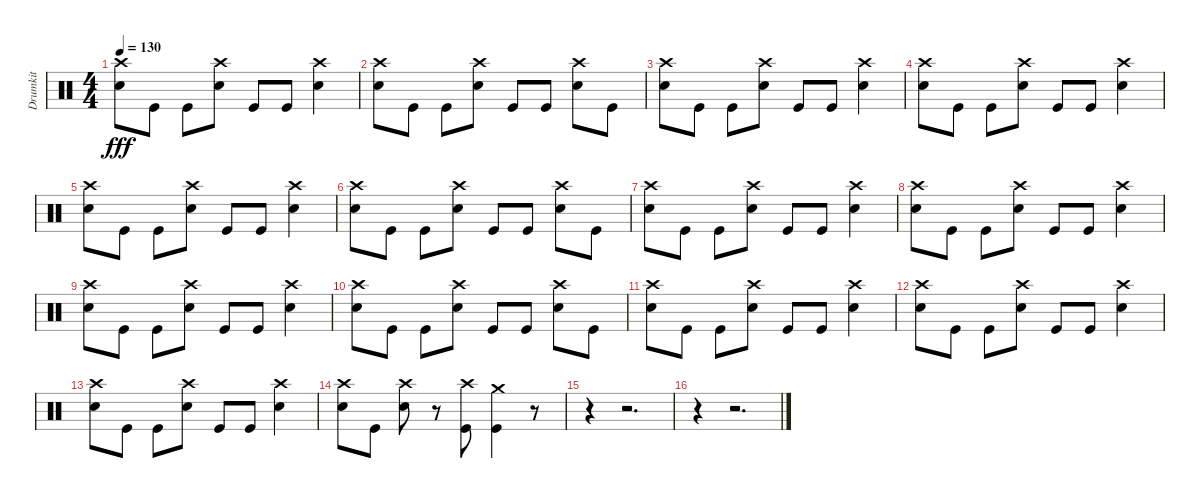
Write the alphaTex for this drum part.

\track ("Drumkit" "Drumkit") {instrument percussion}
\staff {score}
\articulation defaults
\ts (4 4)
\tempo 130
\clef neutral
\ks c
("Snare (hit) 2" "Crash high (hit)").8{dy fff} "Kick (hit)".8 "Kick (hit)".8 ("Snare (hit) 2" "Crash high (hit)").8 "Kick (hit)".8 "Kick (hit)".8 ("Snare (hit) 2" "Crash high (hit)").4 |
("Snare (hit) 2" "Crash high (hit)").8 "Kick (hit)".8 "Kick (hit)".8 ("Snare (hit) 2" "Crash high (hit)").8 "Kick (hit)".8 "Kick (hit)".8 ("Snare (hit) 2" "Crash high (hit)").8 "Kick (hit)".8 |
("Snare (hit) 2" "Crash high (hit)").8 "Kick (hit)".8 "Kick (hit)".8 ("Snare (hit) 2" "Crash high (hit)").8 "Kick (hit)".8 "Kick (hit)".8 ("Snare (hit) 2" "Crash high (hit)").4 |
("Snare (hit) 2" "Crash high (hit)").8 "Kick (hit)".8 "Kick (hit)".8 ("Snare (hit) 2" "Crash high (hit)").8 "Kick (hit)".8 "Kick (hit)".8 ("Snare (hit) 2" "Crash high (hit)").4 |
("Snare (hit) 2" "Crash high (hit)").8 "Kick (hit)".8 "Kick (hit)".8 ("Snare (hit) 2" "Crash high (hit)").8 "Kick (hit)".8 "Kick (hit)".8 ("Snare (hit) 2" "Crash high (hit)").4 |
("Snare (hit) 2" "Crash high (hit)").8 "Kick (hit)".8 "Kick (hit)".8 ("Snare (hit) 2" "Crash high (hit)").8 "Kick (hit)".8 "Kick (hit)".8 ("Snare (hit) 2" "Crash high (hit)").8 "Kick (hit)".8 |
("Snare (hit) 2" "Crash high (hit)").8 "Kick (hit)".8 "Kick (hit)".8 ("Snare (hit) 2" "Crash high (hit)").8 "Kick (hit)".8 "Kick (hit)".8 ("Snare (hit) 2" "Crash high (hit)").4 |
("Snare (hit) 2" "Crash high (hit)").8 "Kick (hit)".8 "Kick (hit)".8 ("Snare (hit) 2" "Crash high (hit)").8 "Kick (hit)".8 "Kick (hit)".8 ("Snare (hit) 2" "Crash high (hit)").4 |
("Snare (hit) 2" "Crash high (hit)").8 "Kick (hit)".8 "Kick (hit)".8 ("Snare (hit) 2" "Crash high (hit)").8 "Kick (hit)".8 "Kick (hit)".8 ("Snare (hit) 2" "Crash high (hit)").4 |
("Snare (hit) 2" "Crash high (hit)").8 "Kick (hit)".8 "Kick (hit)".8 ("Snare (hit) 2" "Crash high (hit)").8 "Kick (hit)".8 "Kick (hit)".8 ("Snare (hit) 2" "Crash high (hit)").8 "Kick (hit)".8 |
("Snare (hit) 2" "Crash high (hit)").8 "Kick (hit)".8 "Kick (hit)".8 ("Snare (hit) 2" "Crash high (hit)").8 "Kick (hit)".8 "Kick (hit)".8 ("Snare (hit) 2" "Crash high (hit)").4 |
("Snare (hit) 2" "Crash high (hit)").8 "Kick (hit)".8 "Kick (hit)".8 ("Snare (hit) 2" "Crash high (hit)").8 "Kick (hit)".8 "Kick (hit)".8 ("Snare (hit) 2" "Crash high (hit)").4 |
("Snare (hit) 2" "Crash high (hit)").8 "Kick (hit)".8 "Kick (hit)".8 ("Snare (hit) 2" "Crash high (hit)").8 "Kick (hit)".8 "Kick (hit)".8 ("Snare (hit) 2" "Crash high (hit)").4 |
("Snare (hit) 2" "Crash high (hit)").8 "Kick (hit)".8 ("Crash high (hit)" "Snare (hit) 2").8 r.8 ("Kick (hit)" "Crash high (hit)").8 ("Kick (hit)" "Crash medium (hit)").4 r.8 |
r.4 r.2{d} |
r.4 r.2{d}
